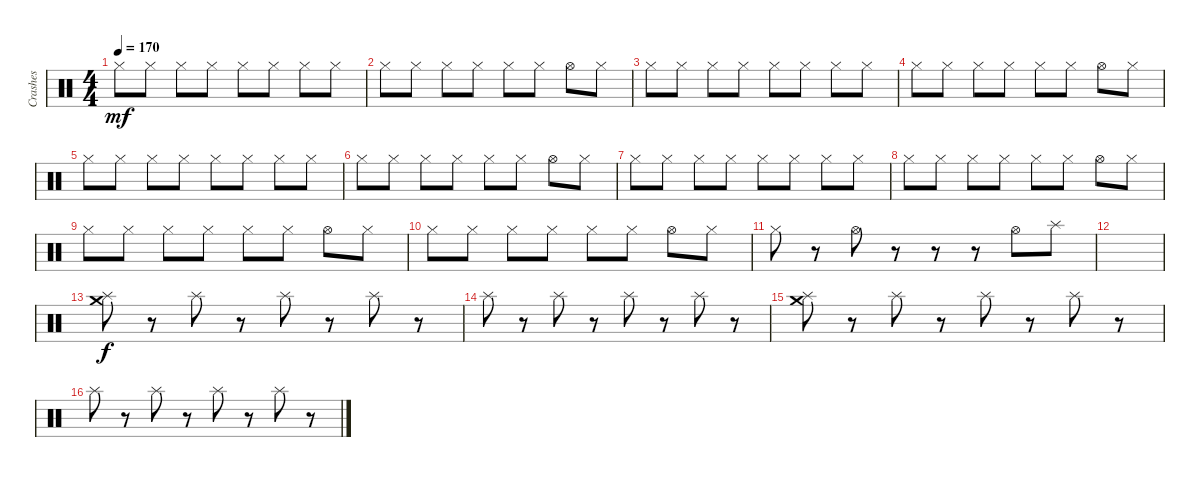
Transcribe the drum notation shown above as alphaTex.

\track ("Crashes" "Crashes") {instrument percussion}
\staff {score}
\articulation defaults
\ts (4 4)
\tempo 170
\clef neutral
\ks c "Hi-Hat (closed)".8{dy mf} "Hi-Hat (closed)".8 "Hi-Hat (closed)".8 "Hi-Hat (closed)".8 "Hi-Hat (closed)".8 "Hi-Hat (closed)".8 "Hi-Hat (closed)".8 "Hi-Hat (closed)".8
|
"Hi-Hat (closed)".8 "Hi-Hat (closed)".8 "Hi-Hat (closed)".8 "Hi-Hat (closed)".8 "Hi-Hat (closed)".8 "Hi-Hat (closed)".8 "Hi-Hat (open)".8 "Hi-Hat (closed)".8 |
"Hi-Hat (closed)".8 "Hi-Hat (closed)".8 "Hi-Hat (closed)".8 "Hi-Hat (closed)".8 "Hi-Hat (closed)".8 "Hi-Hat (closed)".8 "Hi-Hat (closed)".8 "Hi-Hat (closed)".8 |
"Hi-Hat (closed)".8 "Hi-Hat (closed)".8 "Hi-Hat (closed)".8 "Hi-Hat (closed)".8 "Hi-Hat (closed)".8 "Hi-Hat (closed)".8 "Hi-Hat (open)".8 "Hi-Hat (closed)".8 |
"Hi-Hat (closed)".8 "Hi-Hat (closed)".8 "Hi-Hat (closed)".8 "Hi-Hat (closed)".8 "Hi-Hat (closed)".8 "Hi-Hat (closed)".8 "Hi-Hat (closed)".8 "Hi-Hat (closed)".8 |
"Hi-Hat (closed)".8 "Hi-Hat (closed)".8 "Hi-Hat (closed)".8 "Hi-Hat (closed)".8 "Hi-Hat (closed)".8 "Hi-Hat (closed)".8 "Hi-Hat (open)".8 "Hi-Hat (closed)".8 |
"Hi-Hat (closed)".8 "Hi-Hat (closed)".8 "Hi-Hat (closed)".8 "Hi-Hat (closed)".8 "Hi-Hat (closed)".8 "Hi-Hat (closed)".8 "Hi-Hat (closed)".8 "Hi-Hat (closed)".8 |
"Hi-Hat (closed)".8 "Hi-Hat (closed)".8 "Hi-Hat (closed)".8 "Hi-Hat (closed)".8 "Hi-Hat (closed)".8 "Hi-Hat (closed)".8 "Hi-Hat (open)".8 "Hi-Hat (closed)".8 |
"Hi-Hat (closed)".8 "Hi-Hat (closed)".8 "Hi-Hat (closed)".8 "Hi-Hat (closed)".8 "Hi-Hat (closed)".8 "Hi-Hat (closed)".8 "Hi-Hat (open)".8 "Hi-Hat (closed)".8 |
"Hi-Hat (closed)".8 "Hi-Hat (closed)".8 "Hi-Hat (closed)".8 "Hi-Hat (closed)".8 "Hi-Hat (closed)".8 "Hi-Hat (closed)".8 "Hi-Hat (open)".8 "Hi-Hat (closed)".8 |
"Hi-Hat (closed)".8 r.8 "Hi-Hat (open)".8 r.8 r.8 r.8 "Hi-Hat (open)".8 "Splash (hit)".8 |
|
("Crash medium (hit)" "Splash (hit)").8{dy f} r.8 "Splash (hit)".8 r.8 "Splash (hit)".8 r.8 "Splash (hit)".8 r.8 |
"Splash (hit)".8 r.8 "Splash (hit)".8 r.8 "Splash (hit)".8 r.8 "Splash (hit)".8 r.8 |
("Crash medium (hit)" "Splash (hit)").8 r.8 "Splash (hit)".8 r.8 "Splash (hit)".8 r.8 "Splash (hit)".8 r.8 |
"Splash (hit)".8 r.8 "Splash (hit)".8 r.8 "Splash (hit)".8 r.8 "Splash (hit)".8 r.8
